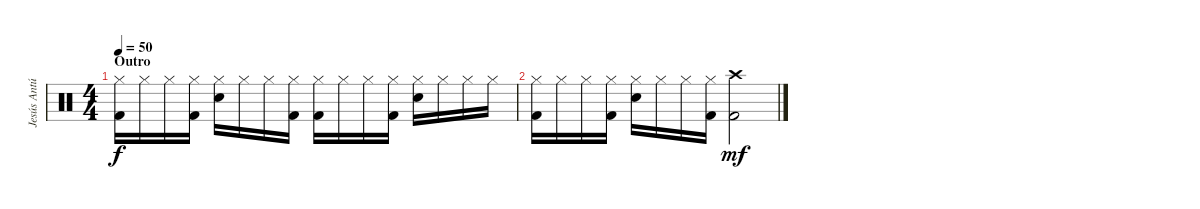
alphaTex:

\track ("Jesús Antúnez (Bateria)" "Jesús Antú") {instrument percussion}
\staff {score}
\articulation defaults
\ts (4 4)
\section ("" "Outro")
\tempo 50
\clef neutral
\ks c
("Hi-Hat (closed)" "Kick (hit) 2").16{dy f} "Hi-Hat (closed)".16 "Hi-Hat (closed)".16 ("Hi-Hat (closed)" "Kick (hit) 2").16 ("Hi-Hat (closed)" "Snare (hit) 2").16 "Hi-Hat (closed)".16 "Hi-Hat (closed)".16 ("Hi-Hat (closed)" "Kick (hit) 2").16 ("Hi-Hat (closed)" "Kick (hit) 2").16 "Hi-Hat (closed)".16 "Hi-Hat (closed)".16 ("Hi-Hat (closed)" "Kick (hit) 2").16 ("Hi-Hat (closed)" "Snare (hit) 2").16 "Hi-Hat (closed)".16 "Hi-Hat (closed)".16 "Hi-Hat (closed)".16 |
("Hi-Hat (closed)" "Kick (hit) 2").16 "Hi-Hat (closed)".16 "Hi-Hat (closed)".16 ("Hi-Hat (closed)" "Kick (hit) 2").16 ("Hi-Hat (closed)" "Snare (hit) 2").16 "Hi-Hat (closed)".16 "Hi-Hat (closed)".16 ("Hi-Hat (closed)" "Kick (hit) 2").16 ("Crash high (hit)" "Kick (hit) 2").2{dy mf}
